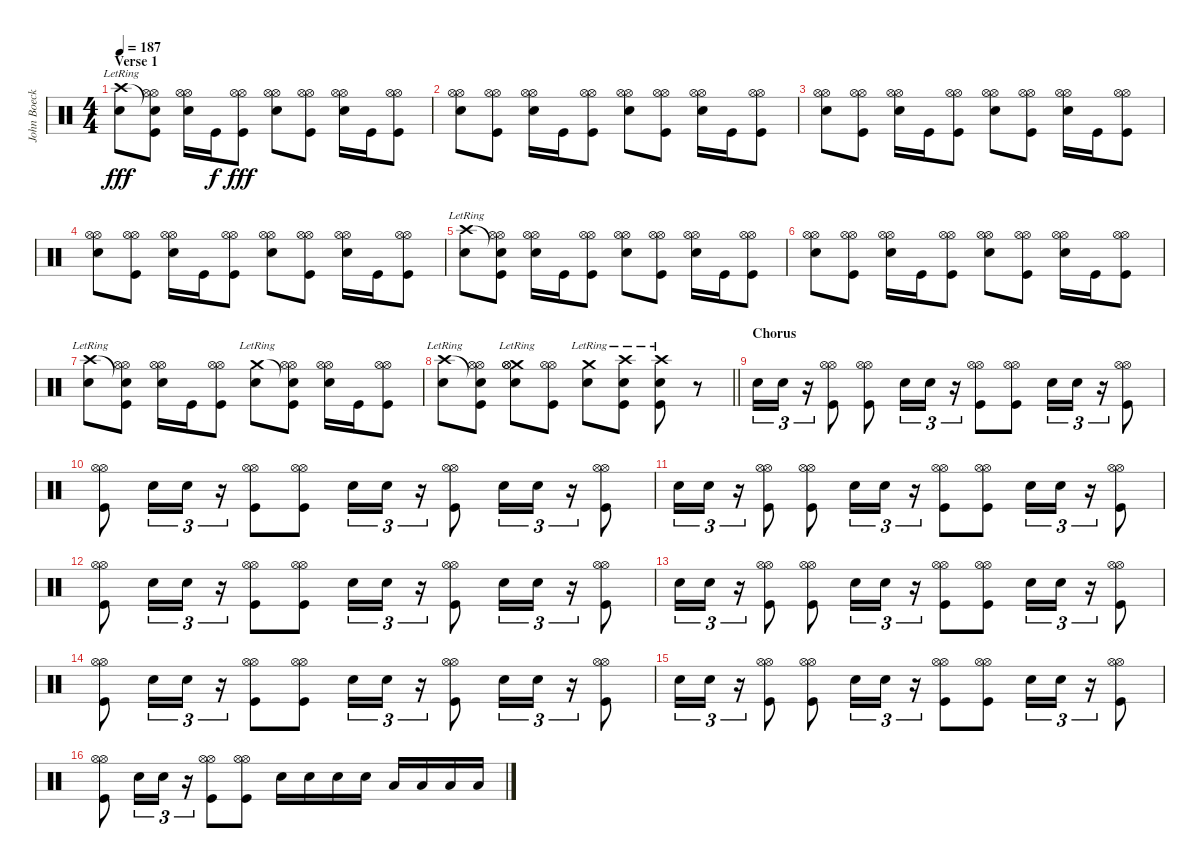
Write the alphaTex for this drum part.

\track ("John Boecklin - Drums" "John Boeck") {instrument percussion}
\staff {score}
\articulation defaults
\ts (4 4)
\section ("" "Verse 1")
\tempo 187
\clef neutral
\ks c
("Crash high (hit)"{lr} "Snare (hit) 2").8{dy fff} ("Snare (hit)"{t} "Hi-Hat (open)" "Hi-Hat (open)" "Kick (hit)").8 ("Snare (hit) 2" "Hi-Hat (open)" "Hi-Hat (open)").16 "Kick (hit)".16{dy f} ("Hi-Hat (open)" "Hi-Hat (open)" "Kick (hit)").8{dy fff} ("Snare (hit) 2" "Hi-Hat (open)" "Hi-Hat (open)").8 ("Hi-Hat (open)" "Hi-Hat (open)" "Kick (hit)").8 ("Snare (hit) 2" "Hi-Hat (open)" "Hi-Hat (open)").16 "Kick (hit)".16 ("Hi-Hat (open)" "Hi-Hat (open)" "Kick (hit)").8 |
("Snare (hit) 2" "Hi-Hat (open)" "Hi-Hat (open)").8 ("Hi-Hat (open)" "Hi-Hat (open)" "Kick (hit)").8 ("Snare (hit) 2" "Hi-Hat (open)" "Hi-Hat (open)").16 "Kick (hit)".16 ("Hi-Hat (open)" "Hi-Hat (open)" "Kick (hit)").8 ("Snare (hit) 2" "Hi-Hat (open)" "Hi-Hat (open)").8 ("Hi-Hat (open)" "Hi-Hat (open)" "Kick (hit)").8 ("Snare (hit) 2" "Hi-Hat (open)" "Hi-Hat (open)").16 "Kick (hit)".16 ("Hi-Hat (open)" "Hi-Hat (open)" "Kick (hit)").8 |
("Snare (hit) 2" "Hi-Hat (open)" "Hi-Hat (open)").8 ("Hi-Hat (open)" "Hi-Hat (open)" "Kick (hit)").8 ("Snare (hit) 2" "Hi-Hat (open)" "Hi-Hat (open)").16 "Kick (hit)".16 ("Hi-Hat (open)" "Hi-Hat (open)" "Kick (hit)").8 ("Snare (hit) 2" "Hi-Hat (open)" "Hi-Hat (open)").8 ("Hi-Hat (open)" "Hi-Hat (open)" "Kick (hit)").8 ("Snare (hit) 2" "Hi-Hat (open)" "Hi-Hat (open)").16 "Kick (hit)".16 ("Hi-Hat (open)" "Hi-Hat (open)" "Kick (hit)").8 |
("Snare (hit) 2" "Hi-Hat (open)" "Hi-Hat (open)").8 ("Hi-Hat (open)" "Hi-Hat (open)" "Kick (hit)").8 ("Snare (hit) 2" "Hi-Hat (open)" "Hi-Hat (open)").16 "Kick (hit)".16 ("Hi-Hat (open)" "Hi-Hat (open)" "Kick (hit)").8 ("Snare (hit) 2" "Hi-Hat (open)" "Hi-Hat (open)").8 ("Hi-Hat (open)" "Hi-Hat (open)" "Kick (hit)").8 ("Snare (hit) 2" "Hi-Hat (open)" "Hi-Hat (open)").16 "Kick (hit)".16 ("Hi-Hat (open)" "Hi-Hat (open)" "Kick (hit)").8 |
("Crash high (hit)"{lr} "Snare (hit) 2").8 ("Snare (hit)"{t} "Hi-Hat (open)" "Hi-Hat (open)" "Kick (hit)").8 ("Snare (hit) 2" "Hi-Hat (open)" "Hi-Hat (open)").16 "Kick (hit)".16 ("Hi-Hat (open)" "Hi-Hat (open)" "Kick (hit)").8 ("Snare (hit) 2" "Hi-Hat (open)" "Hi-Hat (open)").8 ("Hi-Hat (open)" "Hi-Hat (open)" "Kick (hit)").8 ("Snare (hit) 2" "Hi-Hat (open)" "Hi-Hat (open)").16 "Kick (hit)".16 ("Hi-Hat (open)" "Hi-Hat (open)" "Kick (hit)").8 |
("Snare (hit) 2" "Hi-Hat (open)" "Hi-Hat (open)").8 ("Hi-Hat (open)" "Hi-Hat (open)" "Kick (hit)").8 ("Snare (hit) 2" "Hi-Hat (open)" "Hi-Hat (open)").16 "Kick (hit)".16 ("Hi-Hat (open)" "Hi-Hat (open)" "Kick (hit)").8 ("Snare (hit) 2" "Hi-Hat (open)" "Hi-Hat (open)").8 ("Hi-Hat (open)" "Hi-Hat (open)" "Kick (hit)").8 ("Snare (hit) 2" "Hi-Hat (open)" "Hi-Hat (open)").16 "Kick (hit)".16 ("Hi-Hat (open)" "Hi-Hat (open)" "Kick (hit)").8 |
("Crash high (hit)"{lr} "Snare (hit) 2").8 ("Snare (hit)"{t} "Hi-Hat (open)" "Hi-Hat (open)" "Kick (hit)").8 ("Snare (hit) 2" "Hi-Hat (open)" "Hi-Hat (open)").16 "Kick (hit)".16 ("Hi-Hat (open)" "Hi-Hat (open)" "Kick (hit)").8 ("Crash medium (hit)"{lr} "Snare (hit) 2").8 ("Snare (hit)"{t} "Hi-Hat (open)" "Hi-Hat (open)" "Kick (hit)").8 ("Snare (hit) 2" "Hi-Hat (open)" "Hi-Hat (open)").16 "Kick (hit)".16 ("Hi-Hat (open)" "Hi-Hat (open)" "Kick (hit)").8 |
\barLineRight lightlight
("Crash high (hit)"{lr} "Snare (hit) 2").8 ("Snare (hit)"{t} "Hi-Hat (open)" "Hi-Hat (open)" "Kick (hit)").8 ("Crash medium (hit)"{lr} "Snare (hit) 2" "Hi-Hat (open)" "Hi-Hat (open)").8 ("Hi-Hat (open)" "Hi-Hat (open)" "Kick (hit)").8 ("Crash medium (hit)"{lr} "Snare (hit) 2").8 ("Crash high (hit)"{lr} "Snare (hit) 2" "Kick (hit)").8 ("Crash high (hit)"{lr} "Snare (hit) 2" "Kick (hit)").8 r.8 |
\section ("" "Chorus")
"Snare (hit) 2".16{tu (3 2)} "Snare (hit) 2".16{tu (3 2)} r.16{tu (3 2)} ("Hi-Hat (open)" "Hi-Hat (open)" "Kick (hit)").8 ("Hi-Hat (open)" "Hi-Hat (open)" "Kick (hit)").8 "Snare (hit) 2".16{tu (3 2)} "Snare (hit) 2".16{tu (3 2)} r.16{tu (3 2)} ("Hi-Hat (open)" "Hi-Hat (open)" "Kick (hit)").8 ("Hi-Hat (open)" "Hi-Hat (open)" "Kick (hit)").8 "Snare (hit) 2".16{tu (3 2)} "Snare (hit) 2".16{tu (3 2)} r.16{tu (3 2)} ("Hi-Hat (open)" "Hi-Hat (open)" "Kick (hit)").8 |
("Hi-Hat (open)" "Hi-Hat (open)" "Kick (hit)").8 "Snare (hit) 2".16{tu (3 2)} "Snare (hit) 2".16{tu (3 2)} r.16{tu (3 2)} ("Hi-Hat (open)" "Hi-Hat (open)" "Kick (hit)").8 ("Hi-Hat (open)" "Hi-Hat (open)" "Kick (hit)").8 "Snare (hit) 2".16{tu (3 2)} "Snare (hit) 2".16{tu (3 2)} r.16{tu (3 2)} ("Hi-Hat (open)" "Hi-Hat (open)" "Kick (hit)").8 "Snare (hit) 2".16{tu (3 2)} "Snare (hit) 2".16{tu (3 2)} r.16{tu (3 2)} ("Hi-Hat (open)" "Hi-Hat (open)" "Kick (hit)").8 |
"Snare (hit) 2".16{tu (3 2)} "Snare (hit) 2".16{tu (3 2)} r.16{tu (3 2)} ("Hi-Hat (open)" "Hi-Hat (open)" "Kick (hit)").8 ("Hi-Hat (open)" "Hi-Hat (open)" "Kick (hit)").8 "Snare (hit) 2".16{tu (3 2)} "Snare (hit) 2".16{tu (3 2)} r.16{tu (3 2)} ("Hi-Hat (open)" "Hi-Hat (open)" "Kick (hit)").8 ("Hi-Hat (open)" "Hi-Hat (open)" "Kick (hit)").8 "Snare (hit) 2".16{tu (3 2)} "Snare (hit) 2".16{tu (3 2)} r.16{tu (3 2)} ("Hi-Hat (open)" "Hi-Hat (open)" "Kick (hit)").8 |
("Hi-Hat (open)" "Hi-Hat (open)" "Kick (hit)").8 "Snare (hit) 2".16{tu (3 2)} "Snare (hit) 2".16{tu (3 2)} r.16{tu (3 2)} ("Hi-Hat (open)" "Hi-Hat (open)" "Kick (hit)").8 ("Hi-Hat (open)" "Hi-Hat (open)" "Kick (hit)").8 "Snare (hit) 2".16{tu (3 2)} "Snare (hit) 2".16{tu (3 2)} r.16{tu (3 2)} ("Hi-Hat (open)" "Hi-Hat (open)" "Kick (hit)").8 "Snare (hit) 2".16{tu (3 2)} "Snare (hit) 2".16{tu (3 2)} r.16{tu (3 2)} ("Hi-Hat (open)" "Hi-Hat (open)" "Kick (hit)").8 |
"Snare (hit) 2".16{tu (3 2)} "Snare (hit) 2".16{tu (3 2)} r.16{tu (3 2)} ("Hi-Hat (open)" "Hi-Hat (open)" "Kick (hit)").8 ("Hi-Hat (open)" "Hi-Hat (open)" "Kick (hit)").8 "Snare (hit) 2".16{tu (3 2)} "Snare (hit) 2".16{tu (3 2)} r.16{tu (3 2)} ("Hi-Hat (open)" "Hi-Hat (open)" "Kick (hit)").8 ("Hi-Hat (open)" "Hi-Hat (open)" "Kick (hit)").8 "Snare (hit) 2".16{tu (3 2)} "Snare (hit) 2".16{tu (3 2)} r.16{tu (3 2)} ("Hi-Hat (open)" "Hi-Hat (open)" "Kick (hit)").8 |
("Hi-Hat (open)" "Hi-Hat (open)" "Kick (hit)").8 "Snare (hit) 2".16{tu (3 2)} "Snare (hit) 2".16{tu (3 2)} r.16{tu (3 2)} ("Hi-Hat (open)" "Hi-Hat (open)" "Kick (hit)").8 ("Hi-Hat (open)" "Hi-Hat (open)" "Kick (hit)").8 "Snare (hit) 2".16{tu (3 2)} "Snare (hit) 2".16{tu (3 2)} r.16{tu (3 2)} ("Hi-Hat (open)" "Hi-Hat (open)" "Kick (hit)").8 "Snare (hit) 2".16{tu (3 2)} "Snare (hit) 2".16{tu (3 2)} r.16{tu (3 2)} ("Hi-Hat (open)" "Hi-Hat (open)" "Kick (hit)").8 |
"Snare (hit) 2".16{tu (3 2)} "Snare (hit) 2".16{tu (3 2)} r.16{tu (3 2)} ("Hi-Hat (open)" "Hi-Hat (open)" "Kick (hit)").8 ("Hi-Hat (open)" "Hi-Hat (open)" "Kick (hit)").8 "Snare (hit) 2".16{tu (3 2)} "Snare (hit) 2".16{tu (3 2)} r.16{tu (3 2)} ("Hi-Hat (open)" "Hi-Hat (open)" "Kick (hit)").8 ("Hi-Hat (open)" "Hi-Hat (open)" "Kick (hit)").8 "Snare (hit) 2".16{tu (3 2)} "Snare (hit) 2".16{tu (3 2)} r.16{tu (3 2)} ("Hi-Hat (open)" "Hi-Hat (open)" "Kick (hit)").8 |
("Hi-Hat (open)" "Hi-Hat (open)" "Kick (hit)").8 "Snare (hit) 2".16{tu (3 2)} "Snare (hit) 2".16{tu (3 2)} r.16{tu (3 2)} ("Hi-Hat (open)" "Hi-Hat (open)" "Kick (hit)").8 ("Hi-Hat (open)" "Hi-Hat (open)" "Kick (hit)").8 "Snare (hit) 2".16 "Snare (hit) 2".16 "Snare (hit) 2".16 "Snare (hit) 2".16 "Low Tom (hit)".16 "Low Tom (hit)".16 "Low Tom (hit)".16 "Low Tom (hit)".16
